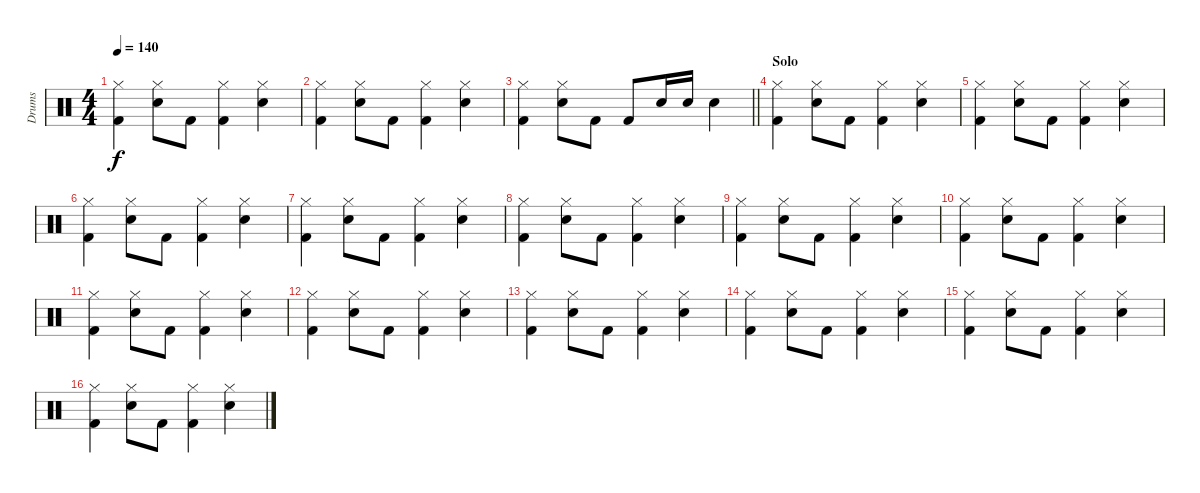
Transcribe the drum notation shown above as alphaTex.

\track ("Drums" "Drums") {instrument percussion}
\staff {score}
\articulation defaults
\ts (4 4)
\tempo 140
\clef neutral
\ks c
("Hi-Hat (closed)" "Kick (hit) 2").4{dy f} ("Hi-Hat (closed)" "Electric Snare (hit)").8 "Kick (hit) 2".8 ("Hi-Hat (closed)" "Kick (hit) 2").4 ("Hi-Hat (closed)" "Electric Snare (hit)").4 |
("Hi-Hat (closed)" "Kick (hit) 2").4 ("Hi-Hat (closed)" "Electric Snare (hit)").8 "Kick (hit) 2".8 ("Hi-Hat (closed)" "Kick (hit) 2").4 ("Hi-Hat (closed)" "Electric Snare (hit)").4 |
\barLineRight lightlight
("Hi-Hat (closed)" "Kick (hit) 2").4 ("Hi-Hat (closed)" "Electric Snare (hit)").8 "Kick (hit) 2".8 "Kick (hit) 2".8 "Electric Snare (hit)".16 "Electric Snare (hit)".16 "Electric Snare (hit)".4 |
\section ("" "Solo")
("Hi-Hat (closed)" "Kick (hit) 2").4 ("Hi-Hat (closed)" "Electric Snare (hit)").8 "Kick (hit) 2".8 ("Hi-Hat (closed)" "Kick (hit) 2").4 ("Hi-Hat (closed)" "Electric Snare (hit)").4 |
("Hi-Hat (closed)" "Kick (hit) 2").4 ("Hi-Hat (closed)" "Electric Snare (hit)").8 "Kick (hit) 2".8 ("Hi-Hat (closed)" "Kick (hit) 2").4 ("Hi-Hat (closed)" "Electric Snare (hit)").4 |
("Hi-Hat (closed)" "Kick (hit) 2").4 ("Hi-Hat (closed)" "Electric Snare (hit)").8 "Kick (hit) 2".8 ("Hi-Hat (closed)" "Kick (hit) 2").4 ("Hi-Hat (closed)" "Electric Snare (hit)").4 |
("Hi-Hat (closed)" "Kick (hit) 2").4 ("Hi-Hat (closed)" "Electric Snare (hit)").8 "Kick (hit) 2".8 ("Hi-Hat (closed)" "Kick (hit) 2").4 ("Hi-Hat (closed)" "Electric Snare (hit)").4 |
("Hi-Hat (closed)" "Kick (hit) 2").4 ("Hi-Hat (closed)" "Electric Snare (hit)").8 "Kick (hit) 2".8 ("Hi-Hat (closed)" "Kick (hit) 2").4 ("Hi-Hat (closed)" "Electric Snare (hit)").4 |
("Hi-Hat (closed)" "Kick (hit) 2").4 ("Hi-Hat (closed)" "Electric Snare (hit)").8 "Kick (hit) 2".8 ("Hi-Hat (closed)" "Kick (hit) 2").4 ("Hi-Hat (closed)" "Electric Snare (hit)").4 |
("Hi-Hat (closed)" "Kick (hit) 2").4 ("Hi-Hat (closed)" "Electric Snare (hit)").8 "Kick (hit) 2".8 ("Hi-Hat (closed)" "Kick (hit) 2").4 ("Hi-Hat (closed)" "Electric Snare (hit)").4 |
("Hi-Hat (closed)" "Kick (hit) 2").4 ("Hi-Hat (closed)" "Electric Snare (hit)").8 "Kick (hit) 2".8 ("Hi-Hat (closed)" "Kick (hit) 2").4 ("Hi-Hat (closed)" "Electric Snare (hit)").4 |
("Hi-Hat (closed)" "Kick (hit) 2").4 ("Hi-Hat (closed)" "Electric Snare (hit)").8 "Kick (hit) 2".8 ("Hi-Hat (closed)" "Kick (hit) 2").4 ("Hi-Hat (closed)" "Electric Snare (hit)").4 |
("Hi-Hat (closed)" "Kick (hit) 2").4 ("Hi-Hat (closed)" "Electric Snare (hit)").8 "Kick (hit) 2".8 ("Hi-Hat (closed)" "Kick (hit) 2").4 ("Hi-Hat (closed)" "Electric Snare (hit)").4 |
("Hi-Hat (closed)" "Kick (hit) 2").4 ("Hi-Hat (closed)" "Electric Snare (hit)").8 "Kick (hit) 2".8 ("Hi-Hat (closed)" "Kick (hit) 2").4 ("Hi-Hat (closed)" "Electric Snare (hit)").4 |
("Hi-Hat (closed)" "Kick (hit) 2").4 ("Hi-Hat (closed)" "Electric Snare (hit)").8 "Kick (hit) 2".8 ("Hi-Hat (closed)" "Kick (hit) 2").4 ("Hi-Hat (closed)" "Electric Snare (hit)").4 |
("Hi-Hat (closed)" "Kick (hit) 2").4 ("Hi-Hat (closed)" "Electric Snare (hit)").8 "Kick (hit) 2".8 ("Hi-Hat (closed)" "Kick (hit) 2").4 ("Hi-Hat (closed)" "Electric Snare (hit)").4
